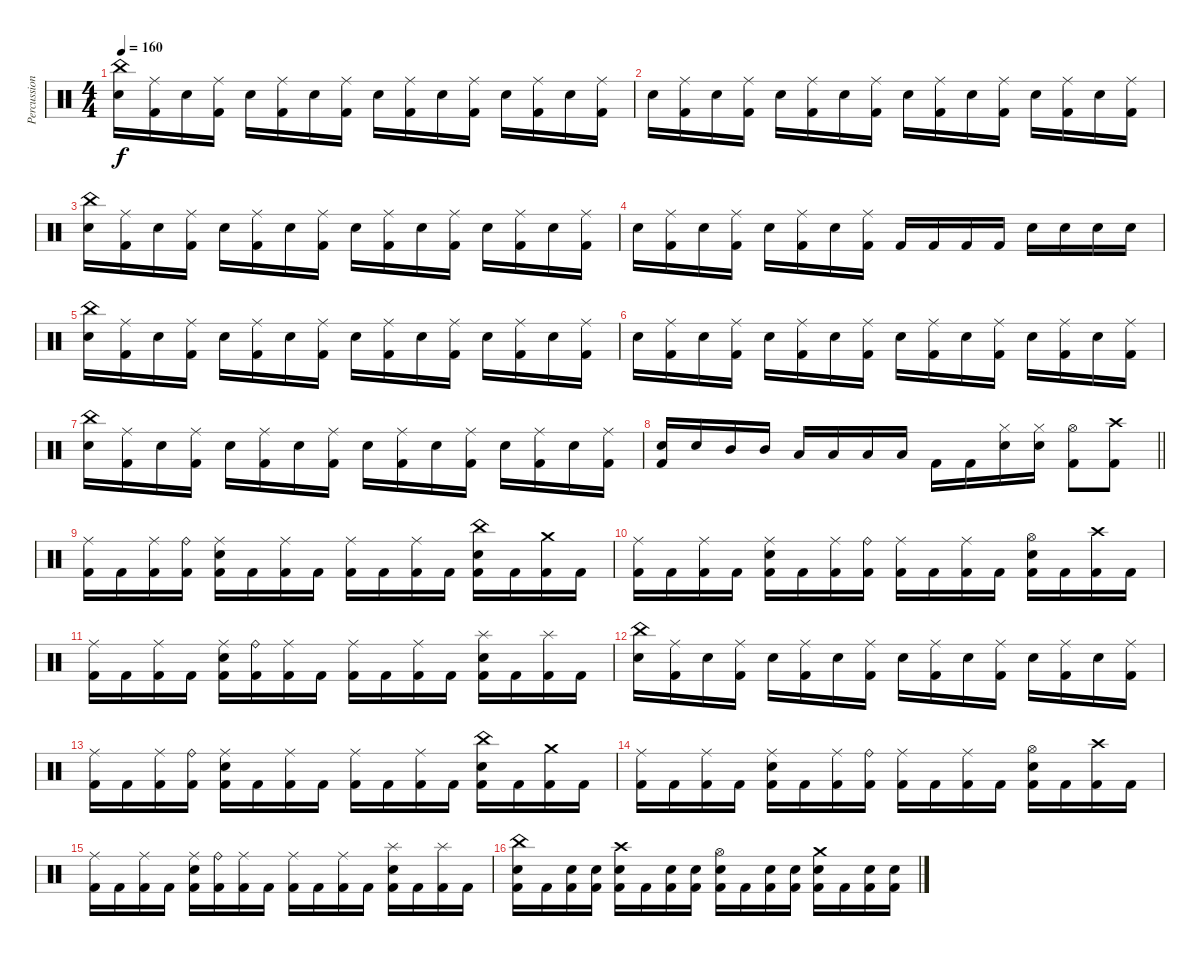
\track ("Percussions" "Percussion") {instrument percussion}
\staff {score}
\articulation defaults
\ts (4 4)
\tempo 160
\clef neutral
\ks c
("China (hit)" "Electric Snare (hit)").16{dy f} ("Ride (middle)" "Kick (hit) 2").16 "Electric Snare (hit)".16 ("Ride (middle)" "Kick (hit) 2").16 "Electric Snare (hit)".16 ("Ride (middle)" "Kick (hit) 2").16 "Electric Snare (hit)".16 ("Ride (middle)" "Kick (hit) 2").16 "Electric Snare (hit)".16 ("Ride (middle)" "Kick (hit) 2").16 "Electric Snare (hit)".16 ("Ride (middle)" "Kick (hit) 2").16 "Electric Snare (hit)".16 ("Ride (middle)" "Kick (hit) 2").16 "Electric Snare (hit)".16 ("Ride (middle)" "Kick (hit) 2").16 |
"Electric Snare (hit)".16 ("Ride (middle)" "Kick (hit) 2").16 "Electric Snare (hit)".16 ("Ride (middle)" "Kick (hit) 2").16 "Electric Snare (hit)".16 ("Ride (middle)" "Kick (hit) 2").16 "Electric Snare (hit)".16 ("Ride (middle)" "Kick (hit) 2").16 "Electric Snare (hit)".16 ("Ride (middle)" "Kick (hit) 2").16 "Electric Snare (hit)".16 ("Ride (middle)" "Kick (hit) 2").16 "Electric Snare (hit)".16 ("Ride (middle)" "Kick (hit) 2").16 "Electric Snare (hit)".16 ("Ride (middle)" "Kick (hit) 2").16 |
("China (hit)" "Electric Snare (hit)").16 ("Ride (middle)" "Kick (hit) 2").16 "Electric Snare (hit)".16 ("Ride (middle)" "Kick (hit) 2").16 "Electric Snare (hit)".16 ("Ride (middle)" "Kick (hit) 2").16 "Electric Snare (hit)".16 ("Ride (middle)" "Kick (hit) 2").16 "Electric Snare (hit)".16 ("Ride (middle)" "Kick (hit) 2").16 "Electric Snare (hit)".16 ("Ride (middle)" "Kick (hit) 2").16 "Electric Snare (hit)".16 ("Ride (middle)" "Kick (hit) 2").16 "Electric Snare (hit)".16 ("Ride (middle)" "Kick (hit) 2").16 |
"Electric Snare (hit)".16 ("Ride (middle)" "Kick (hit) 2").16 "Electric Snare (hit)".16 ("Ride (middle)" "Kick (hit) 2").16 "Electric Snare (hit)".16 ("Ride (middle)" "Kick (hit) 2").16 "Electric Snare (hit)".16 ("Ride (middle)" "Kick (hit) 2").16 "Kick (hit) 2".16 "Kick (hit) 2".16 "Kick (hit) 2".16 "Kick (hit) 2".16 "Electric Snare (hit)".16 "Electric Snare (hit)".16 "Electric Snare (hit)".16 "Electric Snare (hit)".16 |
("China (hit)" "Electric Snare (hit)").16 ("Ride (middle)" "Kick (hit) 2").16 "Electric Snare (hit)".16 ("Ride (middle)" "Kick (hit) 2").16 "Electric Snare (hit)".16 ("Ride (middle)" "Kick (hit) 2").16 "Electric Snare (hit)".16 ("Ride (middle)" "Kick (hit) 2").16 "Electric Snare (hit)".16 ("Ride (middle)" "Kick (hit) 2").16 "Electric Snare (hit)".16 ("Ride (middle)" "Kick (hit) 2").16 "Electric Snare (hit)".16 ("Ride (middle)" "Kick (hit) 2").16 "Electric Snare (hit)".16 ("Ride (middle)" "Kick (hit) 2").16 |
"Electric Snare (hit)".16 ("Ride (middle)" "Kick (hit) 2").16 "Electric Snare (hit)".16 ("Ride (middle)" "Kick (hit) 2").16 "Electric Snare (hit)".16 ("Ride (middle)" "Kick (hit) 2").16 "Electric Snare (hit)".16 ("Ride (middle)" "Kick (hit) 2").16 "Electric Snare (hit)".16 ("Ride (middle)" "Kick (hit) 2").16 "Electric Snare (hit)".16 ("Ride (middle)" "Kick (hit) 2").16 "Electric Snare (hit)".16 ("Ride (middle)" "Kick (hit) 2").16 "Electric Snare (hit)".16 ("Ride (middle)" "Kick (hit) 2").16 |
("China (hit)" "Electric Snare (hit)").16 ("Ride (middle)" "Kick (hit) 2").16 "Electric Snare (hit)".16 ("Ride (middle)" "Kick (hit) 2").16 "Electric Snare (hit)".16 ("Ride (middle)" "Kick (hit) 2").16 "Electric Snare (hit)".16 ("Ride (middle)" "Kick (hit) 2").16 "Electric Snare (hit)".16 ("Ride (middle)" "Kick (hit) 2").16 "Electric Snare (hit)".16 ("Ride (middle)" "Kick (hit) 2").16 "Electric Snare (hit)".16 ("Ride (middle)" "Kick (hit) 2").16 "Electric Snare (hit)".16 ("Ride (middle)" "Kick (hit) 2").16 |
\barLineRight lightlight
("Electric Snare (hit)" "Kick (hit) 2").16 "Electric Snare (hit)".16 "Mid Tom (hit)".16 "Mid Tom (hit)".16 "Low Tom (hit)".16 "Low Tom (hit)".16 "Low Floor Tom (hit)".16 "Low Floor Tom (hit)".16 "Kick (hit) 2".16 "Kick (hit) 2".16 ("Hi-Hat (closed)" "Electric Snare (hit)").16 ("Hi-Hat (closed)" "Electric Snare (hit)").16 ("Hi-Hat (open)" "Kick (hit) 2").8 ("Crash high (hit)" "Kick (hit) 2").8 |
("Ride (middle)" "Kick (hit) 2").16 "Kick (hit) 2".16 ("Ride (middle)" "Kick (hit) 2").16 ("Ride (bell)" "Kick (hit) 2").16 ("Ride (middle)" "Electric Snare (hit)" "Kick (hit) 2").16 "Kick (hit) 2".16 ("Ride (middle)" "Kick (hit) 2").16 "Kick (hit) 2".16 ("Ride (middle)" "Kick (hit) 2").16 "Kick (hit) 2".16 ("Ride (middle)" "Kick (hit) 2").16 "Kick (hit) 2".16 ("China (hit)" "Electric Snare (hit)" "Kick (hit) 2").16 "Kick (hit) 2".16 ("Crash medium (hit)" "Kick (hit) 2").16 "Kick (hit) 2".16 |
("Ride (middle)" "Kick (hit) 2").16 "Kick (hit) 2".16 ("Ride (middle)" "Kick (hit) 2").16 "Kick (hit) 2".16 ("Ride (middle)" "Electric Snare (hit)" "Kick (hit) 2").16 "Kick (hit) 2".16 ("Ride (middle)" "Kick (hit) 2").16 ("Ride (bell)" "Kick (hit) 2").16 ("Ride (middle)" "Kick (hit) 2").16 "Kick (hit) 2".16 ("Ride (middle)" "Kick (hit) 2").16 "Kick (hit) 2".16 ("Hi-Hat (open)" "Electric Snare (hit)" "Kick (hit) 2").16 "Kick (hit) 2".16 ("Crash high (hit)" "Kick (hit) 2").16 "Kick (hit) 2".16 |
("Ride (middle)" "Kick (hit) 2").16 "Kick (hit) 2".16 ("Ride (middle)" "Kick (hit) 2").16 "Kick (hit) 2".16 ("Ride (middle)" "Electric Snare (hit)" "Kick (hit) 2").16 ("Ride (bell)" "Kick (hit) 2").16 ("Ride (middle)" "Kick (hit) 2").16 "Kick (hit) 2".16 ("Ride (middle)" "Kick (hit) 2").16 "Kick (hit) 2".16 ("Ride (middle)" "Kick (hit) 2").16 "Kick (hit) 2".16 ("Splash (hit)" "Electric Snare (hit)" "Kick (hit) 2").16 "Kick (hit) 2".16 ("Splash (hit)" "Kick (hit) 2").16 "Kick (hit) 2".16 |
("China (hit)" "Electric Snare (hit)").16 ("Ride (middle)" "Kick (hit) 2").16 "Electric Snare (hit)".16 ("Ride (middle)" "Kick (hit) 2").16 "Electric Snare (hit)".16 ("Ride (middle)" "Kick (hit) 2").16 "Electric Snare (hit)".16 ("Ride (middle)" "Kick (hit) 2").16 "Electric Snare (hit)".16 ("Ride (middle)" "Kick (hit) 2").16 "Electric Snare (hit)".16 ("Ride (middle)" "Kick (hit) 2").16 "Electric Snare (hit)".16 ("Ride (middle)" "Kick (hit) 2").16 "Electric Snare (hit)".16 ("Ride (middle)" "Kick (hit) 2").16 |
("Ride (middle)" "Kick (hit) 2").16 "Kick (hit) 2".16 ("Ride (middle)" "Kick (hit) 2").16 ("Ride (bell)" "Kick (hit) 2").16 ("Ride (middle)" "Electric Snare (hit)" "Kick (hit) 2").16 "Kick (hit) 2".16 ("Ride (middle)" "Kick (hit) 2").16 "Kick (hit) 2".16 ("Ride (middle)" "Kick (hit) 2").16 "Kick (hit) 2".16 ("Ride (middle)" "Kick (hit) 2").16 "Kick (hit) 2".16 ("China (hit)" "Electric Snare (hit)" "Kick (hit) 2").16 "Kick (hit) 2".16 ("Crash medium (hit)" "Kick (hit) 2").16 "Kick (hit) 2".16 |
("Ride (middle)" "Kick (hit) 2").16 "Kick (hit) 2".16 ("Ride (middle)" "Kick (hit) 2").16 "Kick (hit) 2".16 ("Ride (middle)" "Electric Snare (hit)" "Kick (hit) 2").16 "Kick (hit) 2".16 ("Ride (middle)" "Kick (hit) 2").16 ("Ride (bell)" "Kick (hit) 2").16 ("Ride (middle)" "Kick (hit) 2").16 "Kick (hit) 2".16 ("Ride (middle)" "Kick (hit) 2").16 "Kick (hit) 2".16 ("Hi-Hat (open)" "Electric Snare (hit)" "Kick (hit) 2").16 "Kick (hit) 2".16 ("Crash high (hit)" "Kick (hit) 2").16 "Kick (hit) 2".16 |
("Ride (middle)" "Kick (hit) 2").16 "Kick (hit) 2".16 ("Ride (middle)" "Kick (hit) 2").16 "Kick (hit) 2".16 ("Ride (middle)" "Electric Snare (hit)" "Kick (hit) 2").16 ("Ride (bell)" "Kick (hit) 2").16 ("Ride (middle)" "Kick (hit) 2").16 "Kick (hit) 2".16 ("Ride (middle)" "Kick (hit) 2").16 "Kick (hit) 2".16 ("Ride (middle)" "Kick (hit) 2").16 "Kick (hit) 2".16 ("Splash (hit)" "Electric Snare (hit)" "Kick (hit) 2").16 "Kick (hit) 2".16 ("Splash (hit)" "Kick (hit) 2").16 "Kick (hit) 2".16 |
("China (hit)" "Electric Snare (hit)" "Kick (hit) 2").16 "Kick (hit) 2".16 ("Electric Snare (hit)" "Kick (hit) 2").16 ("Electric Snare (hit)" "Kick (hit) 2").16 ("Crash high (hit)" "Electric Snare (hit)" "Kick (hit) 2").16 "Kick (hit) 2".16 ("Electric Snare (hit)" "Kick (hit) 2").16 ("Electric Snare (hit)" "Kick (hit) 2").16 ("Hi-Hat (open)" "Electric Snare (hit)" "Kick (hit) 2").16 "Kick (hit) 2".16 ("Electric Snare (hit)" "Kick (hit) 2").16 ("Electric Snare (hit)" "Kick (hit) 2").16 ("Crash medium (hit)" "Electric Snare (hit)" "Kick (hit) 2").16 "Kick (hit) 2".16 ("Electric Snare (hit)" "Kick (hit) 2").16 ("Electric Snare (hit)" "Kick (hit) 2").16
